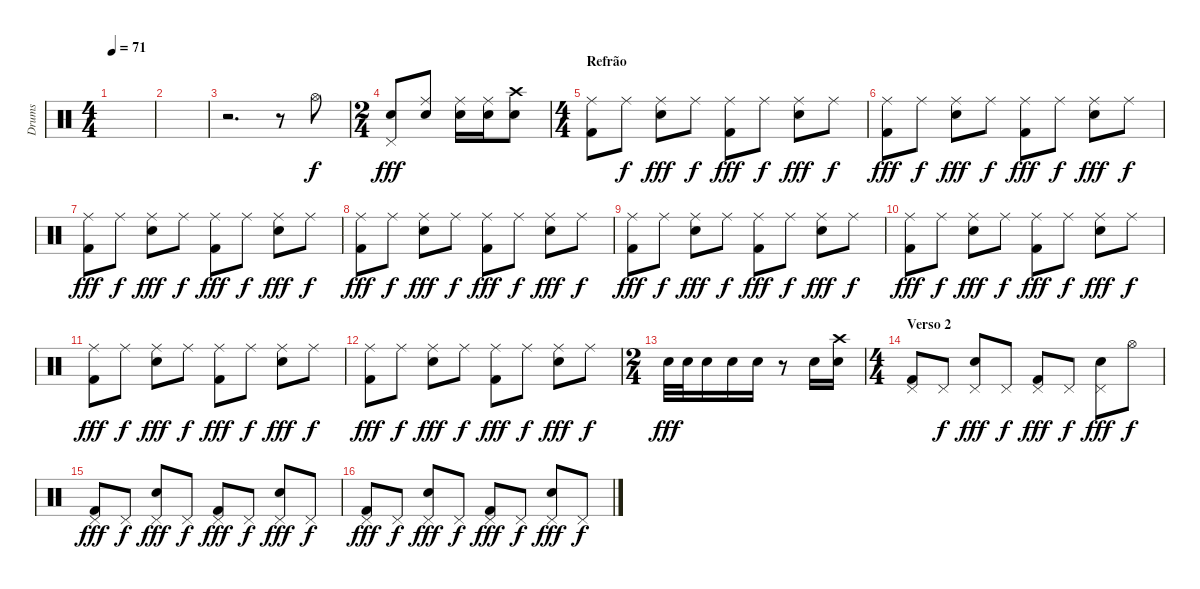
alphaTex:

\track ("Drums" "Drums") {instrument percussion}
\staff {score}
\articulation defaults
\ts (4 4)
\tempo 71
\clef neutral
\ks c
|
|
r.2{d} r.8 "Hi-Hat (open)".8 |
\ts (2 4)
("Electric Snare (hit)" "Pedal Hi-Hat (hit)").8{dy fff} ("Electric Snare (hit)" "Ride (middle)").8 ("Electric Snare (hit)" "Ride (middle)").16 ("Electric Snare (hit)" "Ride (middle)").16 ("Electric Snare (hit)" "Crash high (hit)").8 |
\ts (4 4)
\section ("" "Refrão")
("Ride (middle)" "Kick (hit) 2").8 "Ride (middle)".8{dy f} ("Ride (middle)" "Electric Snare (hit)").8{dy fff} "Ride (middle)".8{dy f} ("Ride (middle)" "Kick (hit) 2").8{dy fff} "Ride (middle)".8{dy f} ("Ride (middle)" "Electric Snare (hit)").8{dy fff} "Ride (middle)".8{dy f} |
("Ride (middle)" "Kick (hit) 2").8{dy fff} "Ride (middle)".8{dy f} ("Ride (middle)" "Electric Snare (hit)").8{dy fff} "Ride (middle)".8{dy f} ("Ride (middle)" "Kick (hit) 2").8{dy fff} "Ride (middle)".8{dy f} ("Ride (middle)" "Electric Snare (hit)").8{dy fff} "Ride (middle)".8{dy f} |
("Ride (middle)" "Kick (hit) 2").8{dy fff} "Ride (middle)".8{dy f} ("Ride (middle)" "Electric Snare (hit)").8{dy fff} "Ride (middle)".8{dy f} ("Ride (middle)" "Kick (hit) 2").8{dy fff} "Ride (middle)".8{dy f} ("Ride (middle)" "Electric Snare (hit)").8{dy fff} "Ride (middle)".8{dy f} |
("Ride (middle)" "Kick (hit) 2").8{dy fff} "Ride (middle)".8{dy f} ("Ride (middle)" "Electric Snare (hit)").8{dy fff} "Ride (middle)".8{dy f} ("Ride (middle)" "Kick (hit) 2").8{dy fff} "Ride (middle)".8{dy f} ("Ride (middle)" "Electric Snare (hit)").8{dy fff} "Ride (middle)".8{dy f} |
("Ride (middle)" "Kick (hit) 2").8{dy fff} "Ride (middle)".8{dy f} ("Ride (middle)" "Electric Snare (hit)").8{dy fff} "Ride (middle)".8{dy f} ("Ride (middle)" "Kick (hit) 2").8{dy fff} "Ride (middle)".8{dy f} ("Ride (middle)" "Electric Snare (hit)").8{dy fff} "Ride (middle)".8{dy f} |
("Ride (middle)" "Kick (hit) 2").8{dy fff} "Ride (middle)".8{dy f} ("Ride (middle)" "Electric Snare (hit)").8{dy fff} "Ride (middle)".8{dy f} ("Ride (middle)" "Kick (hit) 2").8{dy fff} "Ride (middle)".8{dy f} ("Ride (middle)" "Electric Snare (hit)").8{dy fff} "Ride (middle)".8{dy f} |
("Ride (middle)" "Kick (hit) 2").8{dy fff} "Ride (middle)".8{dy f} ("Ride (middle)" "Electric Snare (hit)").8{dy fff} "Ride (middle)".8{dy f} ("Ride (middle)" "Kick (hit) 2").8{dy fff} "Ride (middle)".8{dy f} ("Ride (middle)" "Electric Snare (hit)").8{dy fff} "Ride (middle)".8{dy f} |
("Ride (middle)" "Kick (hit) 2").8{dy fff} "Ride (middle)".8{dy f} ("Ride (middle)" "Electric Snare (hit)").8{dy fff} "Ride (middle)".8{dy f} ("Ride (middle)" "Kick (hit) 2").8{dy fff} "Ride (middle)".8{dy f} ("Ride (middle)" "Electric Snare (hit)").8{dy fff} "Ride (middle)".8{dy f} |
\ts (2 4)
"Electric Snare (hit)".32{dy fff} "Electric Snare (hit)".32 "Electric Snare (hit)".16 "Electric Snare (hit)".16 "Electric Snare (hit)".16 r.8 "Electric Snare (hit)".16 ("Electric Snare (hit)" "Crash high (hit)").16 |
\ts (4 4)
\section ("" "Verso 2")
("Pedal Hi-Hat (hit)" "Kick (hit) 2").8 "Pedal Hi-Hat (hit)".8{dy f} ("Pedal Hi-Hat (hit)" "Electric Snare (hit)").8{dy fff} "Pedal Hi-Hat (hit)".8{dy f} ("Pedal Hi-Hat (hit)" "Kick (hit) 2").8{dy fff} "Pedal Hi-Hat (hit)".8{dy f} ("Pedal Hi-Hat (hit)" "Electric Snare (hit)").8{dy fff} "Hi-Hat (open)".8{dy f} |
("Pedal Hi-Hat (hit)" "Kick (hit) 2").8{dy fff} "Pedal Hi-Hat (hit)".8{dy f} ("Pedal Hi-Hat (hit)" "Electric Snare (hit)").8{dy fff} "Pedal Hi-Hat (hit)".8{dy f} ("Pedal Hi-Hat (hit)" "Kick (hit) 2").8{dy fff} "Pedal Hi-Hat (hit)".8{dy f} ("Pedal Hi-Hat (hit)" "Electric Snare (hit)").8{dy fff} "Pedal Hi-Hat (hit)".8{dy f} |
("Pedal Hi-Hat (hit)" "Kick (hit) 2").8{dy fff} "Pedal Hi-Hat (hit)".8{dy f} ("Pedal Hi-Hat (hit)" "Electric Snare (hit)").8{dy fff} "Pedal Hi-Hat (hit)".8{dy f} ("Pedal Hi-Hat (hit)" "Kick (hit) 2").8{dy fff} "Pedal Hi-Hat (hit)".8{dy f} ("Pedal Hi-Hat (hit)" "Electric Snare (hit)").8{dy fff} "Pedal Hi-Hat (hit)".8{dy f}
